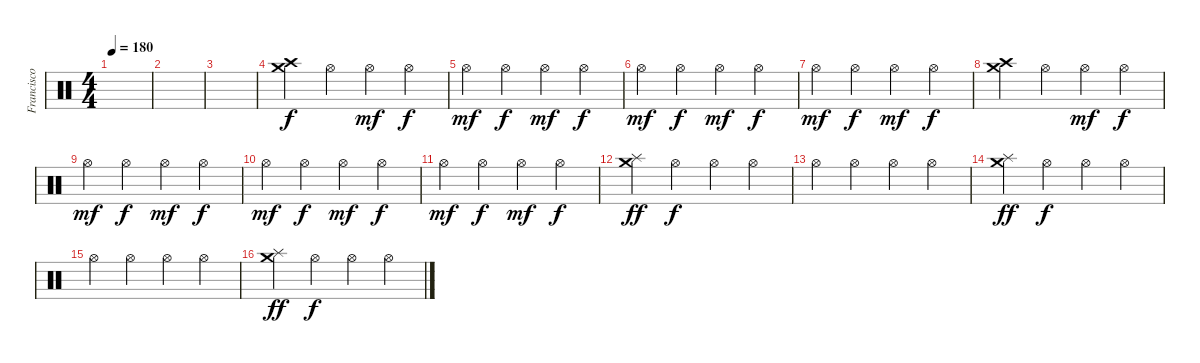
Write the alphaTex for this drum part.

\track ("Francisco Izquierdo (Percusión)" "Francisco ") {instrument percussion}
\staff {score}
\articulation defaults
\ts (4 4)
\tempo 180
\clef neutral
\ks c
|
|
|
("Crash high (hit)" "Crash medium (hit)").4 "Hi-Hat (open)".4 "Hi-Hat (open)".4{dy mf} "Hi-Hat (open)".4{dy f} |
"Hi-Hat (open)".4{dy mf} "Hi-Hat (open)".4{dy f} "Hi-Hat (open)".4{dy mf} "Hi-Hat (open)".4{dy f} |
"Hi-Hat (open)".4{dy mf} "Hi-Hat (open)".4{dy f} "Hi-Hat (open)".4{dy mf} "Hi-Hat (open)".4{dy f} |
"Hi-Hat (open)".4{dy mf} "Hi-Hat (open)".4{dy f} "Hi-Hat (open)".4{dy mf} "Hi-Hat (open)".4{dy f} |
("Crash high (hit)" "Crash medium (hit)").4 "Hi-Hat (open)".4 "Hi-Hat (open)".4{dy mf} "Hi-Hat (open)".4{dy f} |
"Hi-Hat (open)".4{dy mf} "Hi-Hat (open)".4{dy f} "Hi-Hat (open)".4{dy mf} "Hi-Hat (open)".4{dy f} |
"Hi-Hat (open)".4{dy mf} "Hi-Hat (open)".4{dy f} "Hi-Hat (open)".4{dy mf} "Hi-Hat (open)".4{dy f} |
"Hi-Hat (open)".4{dy mf} "Hi-Hat (open)".4{dy f} "Hi-Hat (open)".4{dy mf} "Hi-Hat (open)".4{dy f} |
("Splash (hit)" "Crash medium (hit)").4{dy ff} "Hi-Hat (open)".4{dy f} "Hi-Hat (open)".4 "Hi-Hat (open)".4 |
"Hi-Hat (open)".4 "Hi-Hat (open)".4 "Hi-Hat (open)".4 "Hi-Hat (open)".4 |
("Splash (hit)" "Crash medium (hit)").4{dy ff} "Hi-Hat (open)".4{dy f} "Hi-Hat (open)".4 "Hi-Hat (open)".4 |
"Hi-Hat (open)".4 "Hi-Hat (open)".4 "Hi-Hat (open)".4 "Hi-Hat (open)".4 |
("Splash (hit)" "Crash medium (hit)").4{dy ff} "Hi-Hat (open)".4{dy f} "Hi-Hat (open)".4 "Hi-Hat (open)".4
